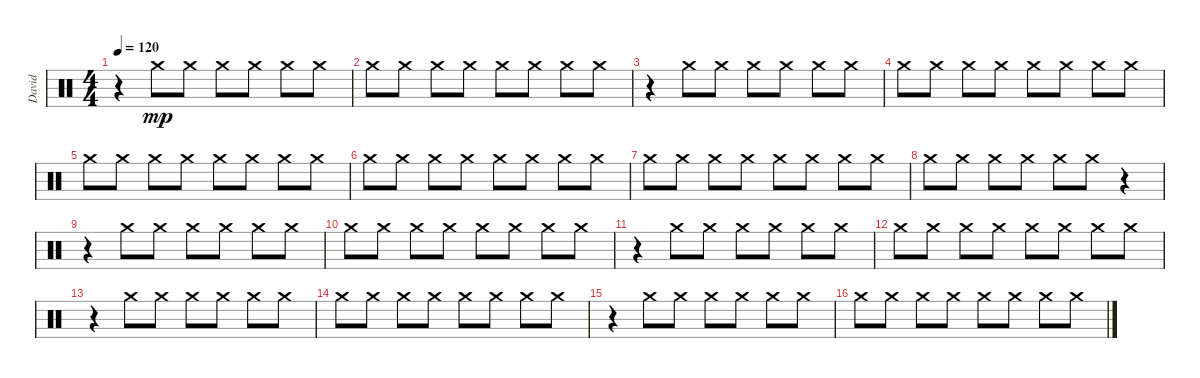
\track ("David" "David") {instrument percussion}
\staff {score}
\articulation defaults
\ts (4 4)
\tempo 120
\clef neutral
\ks c
r.4{dy f} "Crash medium (hit)".8{dy mp} "Crash medium (hit)".8 "Crash medium (hit)".8 "Crash medium (hit)".8 "Crash medium (hit)".8 "Crash medium (hit)".8 |
"Crash medium (hit)".8 "Crash medium (hit)".8 "Crash medium (hit)".8 "Crash medium (hit)".8 "Crash medium (hit)".8 "Crash medium (hit)".8 "Crash medium (hit)".8 "Crash medium (hit)".8 |
r.4 "Crash medium (hit)".8 "Crash medium (hit)".8 "Crash medium (hit)".8 "Crash medium (hit)".8 "Crash medium (hit)".8 "Crash medium (hit)".8 |
"Crash medium (hit)".8 "Crash medium (hit)".8 "Crash medium (hit)".8 "Crash medium (hit)".8 "Crash medium (hit)".8 "Crash medium (hit)".8 "Crash medium (hit)".8 "Crash medium (hit)".8 |
"Crash medium (hit)".8 "Crash medium (hit)".8 "Crash medium (hit)".8 "Crash medium (hit)".8 "Crash medium (hit)".8 "Crash medium (hit)".8 "Crash medium (hit)".8 "Crash medium (hit)".8 |
"Crash medium (hit)".8 "Crash medium (hit)".8 "Crash medium (hit)".8 "Crash medium (hit)".8 "Crash medium (hit)".8 "Crash medium (hit)".8 "Crash medium (hit)".8 "Crash medium (hit)".8 |
"Crash medium (hit)".8 "Crash medium (hit)".8 "Crash medium (hit)".8 "Crash medium (hit)".8 "Crash medium (hit)".8 "Crash medium (hit)".8 "Crash medium (hit)".8 "Crash medium (hit)".8 |
"Crash medium (hit)".8 "Crash medium (hit)".8 "Crash medium (hit)".8 "Crash medium (hit)".8 "Crash medium (hit)".8 "Crash medium (hit)".8 r.4 |
r.4 "Crash medium (hit)".8 "Crash medium (hit)".8 "Crash medium (hit)".8 "Crash medium (hit)".8 "Crash medium (hit)".8 "Crash medium (hit)".8 |
"Crash medium (hit)".8 "Crash medium (hit)".8 "Crash medium (hit)".8 "Crash medium (hit)".8 "Crash medium (hit)".8 "Crash medium (hit)".8 "Crash medium (hit)".8 "Crash medium (hit)".8 |
r.4 "Crash medium (hit)".8 "Crash medium (hit)".8 "Crash medium (hit)".8 "Crash medium (hit)".8 "Crash medium (hit)".8 "Crash medium (hit)".8 |
"Crash medium (hit)".8 "Crash medium (hit)".8 "Crash medium (hit)".8 "Crash medium (hit)".8 "Crash medium (hit)".8 "Crash medium (hit)".8 "Crash medium (hit)".8 "Crash medium (hit)".8 |
r.4 "Crash medium (hit)".8 "Crash medium (hit)".8 "Crash medium (hit)".8 "Crash medium (hit)".8 "Crash medium (hit)".8 "Crash medium (hit)".8 |
"Crash medium (hit)".8 "Crash medium (hit)".8 "Crash medium (hit)".8 "Crash medium (hit)".8 "Crash medium (hit)".8 "Crash medium (hit)".8 "Crash medium (hit)".8 "Crash medium (hit)".8 |
r.4 "Crash medium (hit)".8 "Crash medium (hit)".8 "Crash medium (hit)".8 "Crash medium (hit)".8 "Crash medium (hit)".8 "Crash medium (hit)".8 |
"Crash medium (hit)".8 "Crash medium (hit)".8 "Crash medium (hit)".8 "Crash medium (hit)".8 "Crash medium (hit)".8 "Crash medium (hit)".8 "Crash medium (hit)".8 "Crash medium (hit)".8
